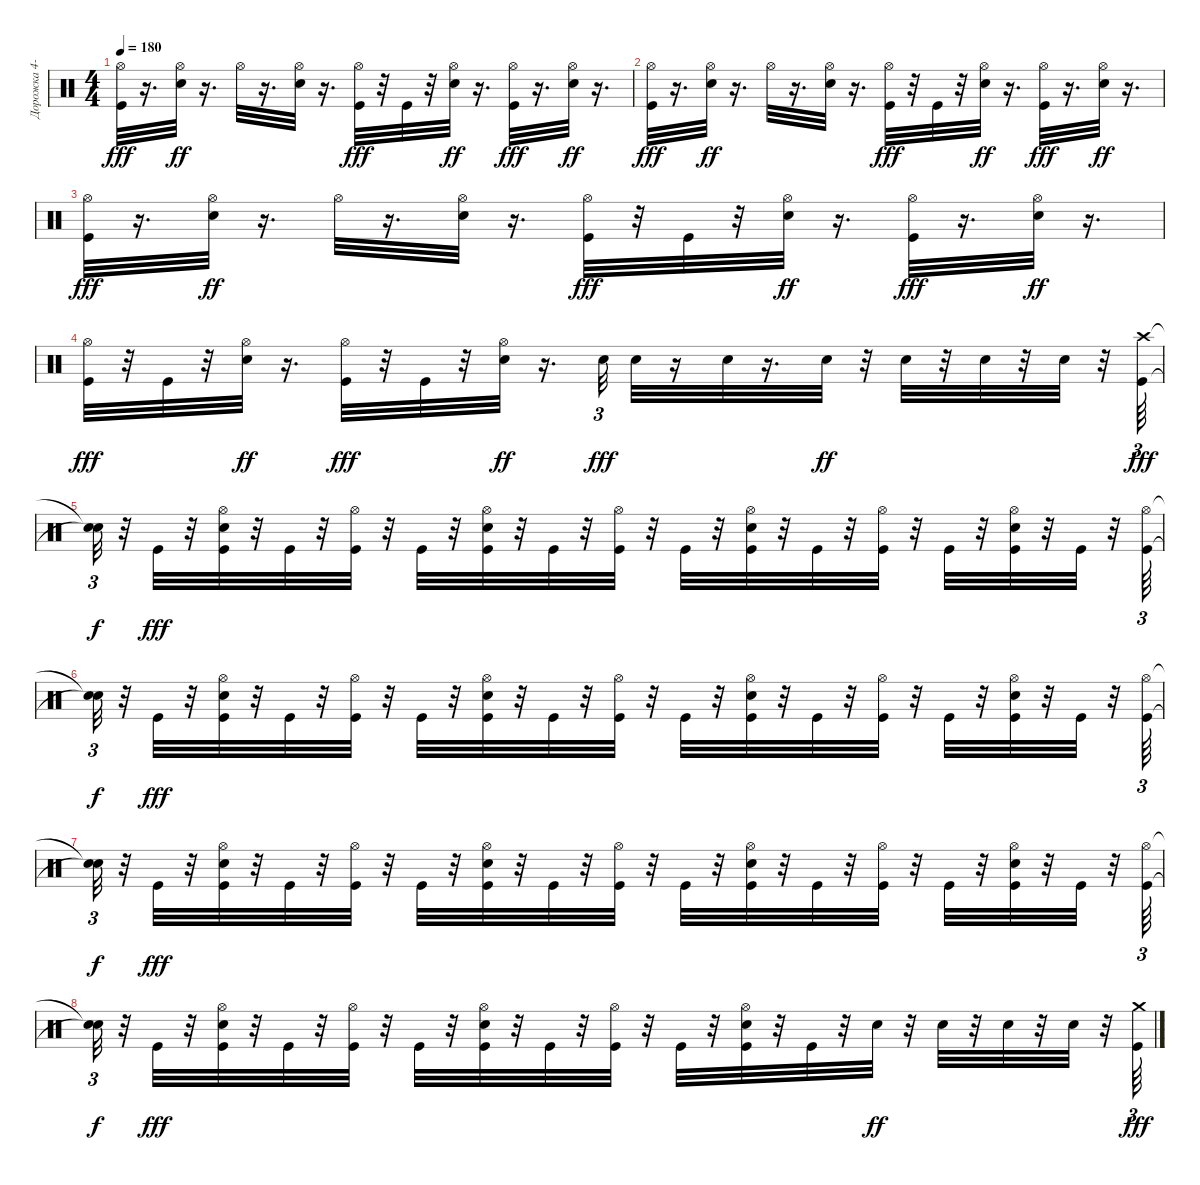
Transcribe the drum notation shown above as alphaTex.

\track ("Дорожка 4-10-11" "Дорожка 4-") {instrument percussion}
\staff {score}
\articulation defaults
\ts (4 4)
\tempo 180
\clef neutral
\ks c
("Hi-Hat (open)" "Kick (hit)").32{dy fff} r.16{d} ("Hi-Hat (open)" "Snare (hit) 2").32{dy ff} r.16{d} "Hi-Hat (open)".32 r.16{d} ("Snare (hit) 2" "Hi-Hat (open)").32 r.16{d} ("Hi-Hat (open)" "Kick (hit)").32{dy fff} r.32 "Kick (hit)".32 r.32 ("Hi-Hat (open)" "Snare (hit) 2").32{dy ff} r.16{d} ("Hi-Hat (open)" "Kick (hit)").32{dy fff} r.16{d} ("Hi-Hat (open)" "Snare (hit) 2").32{dy ff} r.16{d} |
("Hi-Hat (open)" "Kick (hit)").32{dy fff} r.16{d} ("Hi-Hat (open)" "Snare (hit) 2").32{dy ff} r.16{d} "Hi-Hat (open)".32 r.16{d} ("Snare (hit) 2" "Hi-Hat (open)").32 r.16{d} ("Hi-Hat (open)" "Kick (hit)").32{dy fff} r.32 "Kick (hit)".32 r.32 ("Hi-Hat (open)" "Snare (hit) 2").32{dy ff} r.16{d} ("Hi-Hat (open)" "Kick (hit)").32{dy fff} r.16{d} ("Hi-Hat (open)" "Snare (hit) 2").32{dy ff} r.16{d} |
("Hi-Hat (open)" "Kick (hit)").32{dy fff} r.16{d} ("Hi-Hat (open)" "Snare (hit) 2").32{dy ff} r.16{d} "Hi-Hat (open)".32 r.16{d} ("Snare (hit) 2" "Hi-Hat (open)").32 r.16{d} ("Hi-Hat (open)" "Kick (hit)").32{dy fff} r.32 "Kick (hit)".32 r.32 ("Hi-Hat (open)" "Snare (hit) 2").32{dy ff} r.16{d} ("Hi-Hat (open)" "Kick (hit)").32{dy fff} r.16{d} ("Hi-Hat (open)" "Snare (hit) 2").32{dy ff} r.16{d} |
("Hi-Hat (open)" "Kick (hit)").32{dy fff} r.32 "Kick (hit)".32 r.32 ("Hi-Hat (open)" "Snare (hit) 2").32{dy ff} r.16{d} ("Hi-Hat (open)" "Kick (hit)").32{dy fff} r.32 "Kick (hit)".32 r.32 ("Snare (hit) 2" "Hi-Hat (open)").32{dy ff} r.16{d} "Snare (hit) 2".32{tu (3 2) dy fff} "Snare (hit) 2".32 r.16 "Snare (hit) 2".32 r.16{d} "Snare (hit) 2".32{dy ff} r.32 "Snare (hit) 2".32 r.32 "Snare (hit) 2".32 r.32 "Snare (hit) 2".32 r.32 ("Crash high (hit)" "Kick (hit)").64{tu (3 2) dy fff} |
("Snare (hit)"{t} "Snare (hit)"{t}).32{tu (3 2) dy f} r.32 "Kick (hit)".32{dy fff} r.32 ("Hi-Hat (open)" "Snare (hit) 2" "Kick (hit)").32 r.32 "Kick (hit)".32 r.32 ("Hi-Hat (open)" "Kick (hit)").32 r.32 "Kick (hit)".32 r.32 ("Hi-Hat (open)" "Snare (hit) 2" "Kick (hit)").32 r.32 "Kick (hit)".32 r.32 ("Hi-Hat (open)" "Kick (hit)").32 r.32 "Kick (hit)".32 r.32 ("Hi-Hat (open)" "Snare (hit) 2" "Kick (hit)").32 r.32 "Kick (hit)".32 r.32 ("Hi-Hat (open)" "Kick (hit)").32 r.32 "Kick (hit)".32 r.32 ("Snare (hit) 2" "Hi-Hat (open)" "Kick (hit)").32 r.32 "Kick (hit)".32 r.32 ("Hi-Hat (open)" "Kick (hit)").64{tu (3 2)} |
("Snare (hit)"{t} "Snare (hit)"{t}).32{tu (3 2) dy f} r.32 "Kick (hit)".32{dy fff} r.32 ("Hi-Hat (open)" "Snare (hit) 2" "Kick (hit)").32 r.32 "Kick (hit)".32 r.32 ("Hi-Hat (open)" "Kick (hit)").32 r.32 "Kick (hit)".32 r.32 ("Hi-Hat (open)" "Snare (hit) 2" "Kick (hit)").32 r.32 "Kick (hit)".32 r.32 ("Hi-Hat (open)" "Kick (hit)").32 r.32 "Kick (hit)".32 r.32 ("Hi-Hat (open)" "Snare (hit) 2" "Kick (hit)").32 r.32 "Kick (hit)".32 r.32 ("Hi-Hat (open)" "Kick (hit)").32 r.32 "Kick (hit)".32 r.32 ("Snare (hit) 2" "Hi-Hat (open)" "Kick (hit)").32 r.32 "Kick (hit)".32 r.32 ("Hi-Hat (open)" "Kick (hit)").64{tu (3 2)} |
("Snare (hit)"{t} "Snare (hit)"{t}).32{tu (3 2) dy f} r.32 "Kick (hit)".32{dy fff} r.32 ("Hi-Hat (open)" "Snare (hit) 2" "Kick (hit)").32 r.32 "Kick (hit)".32 r.32 ("Hi-Hat (open)" "Kick (hit)").32 r.32 "Kick (hit)".32 r.32 ("Hi-Hat (open)" "Snare (hit) 2" "Kick (hit)").32 r.32 "Kick (hit)".32 r.32 ("Hi-Hat (open)" "Kick (hit)").32 r.32 "Kick (hit)".32 r.32 ("Hi-Hat (open)" "Snare (hit) 2" "Kick (hit)").32 r.32 "Kick (hit)".32 r.32 ("Hi-Hat (open)" "Kick (hit)").32 r.32 "Kick (hit)".32 r.32 ("Snare (hit) 2" "Hi-Hat (open)" "Kick (hit)").32 r.32 "Kick (hit)".32 r.32 ("Hi-Hat (open)" "Kick (hit)").64{tu (3 2)} |
("Snare (hit)"{t} "Snare (hit)"{t}).32{tu (3 2) dy f} r.32 "Kick (hit)".32{dy fff} r.32 ("Hi-Hat (open)" "Snare (hit) 2" "Kick (hit)").32 r.32 "Kick (hit)".32 r.32 ("Hi-Hat (open)" "Kick (hit)").32 r.32 "Kick (hit)".32 r.32 ("Hi-Hat (open)" "Snare (hit) 2" "Kick (hit)").32 r.32 "Kick (hit)".32 r.32 ("Hi-Hat (open)" "Kick (hit)").32 r.32 "Kick (hit)".32 r.32 ("Hi-Hat (open)" "Snare (hit) 2" "Kick (hit)").32 r.32 "Kick (hit)".32 r.32 "Snare (hit) 2".32{dy ff} r.32 "Snare (hit) 2".32 r.32 "Snare (hit) 2".32 r.32 "Snare (hit) 2".32 r.32 ("Crash medium (hit)" "Kick (hit)").64{tu (3 2) dy fff}
